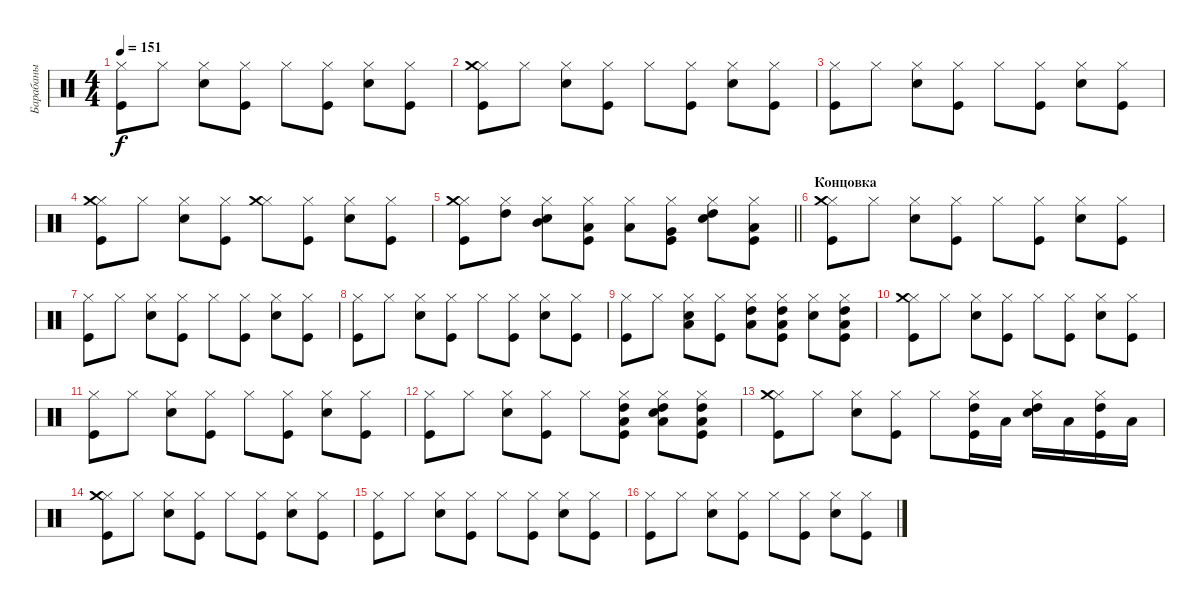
\track ("Барабаны" "Барабаны") {instrument percussion}
\staff {score}
\articulation defaults
\ts (4 4)
\tempo 151
\clef neutral
\ks c
("Kick (hit)" "Hi-Hat (closed)").8{dy f} "Hi-Hat (closed)".8 ("Snare (hit) 2" "Hi-Hat (closed)").8 ("Kick (hit)" "Hi-Hat (closed)").8 "Hi-Hat (closed)".8 ("Kick (hit)" "Hi-Hat (closed)").8 ("Snare (hit) 2" "Hi-Hat (closed)").8 ("Kick (hit)" "Hi-Hat (closed)").8 |
("Kick (hit)" "Hi-Hat (closed)" "Crash medium (hit)").8 "Hi-Hat (closed)".8 ("Snare (hit) 2" "Hi-Hat (closed)").8 ("Kick (hit)" "Hi-Hat (closed)").8 "Hi-Hat (closed)".8 ("Kick (hit)" "Hi-Hat (closed)").8 ("Snare (hit) 2" "Hi-Hat (closed)").8 ("Kick (hit)" "Hi-Hat (closed)").8 |
("Kick (hit)" "Hi-Hat (closed)").8 "Hi-Hat (closed)".8 ("Snare (hit) 2" "Hi-Hat (closed)").8 ("Kick (hit)" "Hi-Hat (closed)").8 "Hi-Hat (closed)".8 ("Kick (hit)" "Hi-Hat (closed)").8 ("Snare (hit) 2" "Hi-Hat (closed)").8 ("Kick (hit)" "Hi-Hat (closed)").8 |
("Kick (hit)" "Hi-Hat (closed)" "Crash medium (hit)").8 "Hi-Hat (closed)".8 ("Snare (hit) 2" "Hi-Hat (closed)").8 ("Kick (hit)" "Hi-Hat (closed)").8 ("Hi-Hat (closed)" "Crash medium (hit)").8 ("Kick (hit)" "Hi-Hat (closed)").8 ("Snare (hit) 2" "Hi-Hat (closed)").8 ("Kick (hit)" "Hi-Hat (closed)").8 |
\barLineRight lightlight
("Kick (hit)" "Hi-Hat (closed)" "Crash medium (hit)").8 ("Hi-Hat (closed)" "High Tom (hit)").8 ("Snare (hit) 2" "Hi-Hat (closed)" "Mid Tom (hit)").8 ("Kick (hit)" "Hi-Hat (closed)" "Low Tom (hit)").8 ("Hi-Hat (closed)" "Low Tom (hit)").8 ("Kick (hit)" "Hi-Hat (closed)" "Very Low Tom (hit)").8 ("Snare (hit) 2" "Hi-Hat (closed)" "High Tom (hit)").8 ("Kick (hit)" "Hi-Hat (closed)" "Low Tom (hit)").8 |
\section ("" "Концовка")
("Kick (hit)" "Hi-Hat (closed)" "Crash medium (hit)").8 "Hi-Hat (closed)".8 ("Snare (hit) 2" "Hi-Hat (closed)").8 ("Kick (hit)" "Hi-Hat (closed)").8 "Hi-Hat (closed)".8 ("Kick (hit)" "Hi-Hat (closed)").8 ("Snare (hit) 2" "Hi-Hat (closed)").8 ("Kick (hit)" "Hi-Hat (closed)").8 |
("Kick (hit)" "Hi-Hat (closed)").8 "Hi-Hat (closed)".8 ("Snare (hit) 2" "Hi-Hat (closed)").8 ("Kick (hit)" "Hi-Hat (closed)").8 "Hi-Hat (closed)".8 ("Kick (hit)" "Hi-Hat (closed)").8 ("Snare (hit) 2" "Hi-Hat (closed)").8 ("Kick (hit)" "Hi-Hat (closed)").8 |
("Kick (hit)" "Hi-Hat (closed)").8 "Hi-Hat (closed)".8 ("Snare (hit) 2" "Hi-Hat (closed)").8 ("Kick (hit)" "Hi-Hat (closed)").8 "Hi-Hat (closed)".8 ("Kick (hit)" "Hi-Hat (closed)").8 ("Snare (hit) 2" "Hi-Hat (closed)").8 ("Kick (hit)" "Hi-Hat (closed)").8 |
("Kick (hit)" "Hi-Hat (closed)").8 "Hi-Hat (closed)".8 ("Snare (hit) 2" "Hi-Hat (closed)" "Low Tom (hit)").8 ("Kick (hit)" "Hi-Hat (closed)").8 ("Hi-Hat (closed)" "Low Floor Tom (hit)" "High Tom (hit)").8 ("Kick (hit)" "Hi-Hat (closed)" "Low Floor Tom (hit)" "High Tom (hit)").8 ("Snare (hit) 2" "Hi-Hat (closed)").8 ("Kick (hit)" "Hi-Hat (closed)" "Low Floor Tom (hit)" "High Tom (hit)").8 |
("Kick (hit)" "Hi-Hat (closed)" "Crash medium (hit)").8 "Hi-Hat (closed)".8 ("Snare (hit) 2" "Hi-Hat (closed)").8 ("Kick (hit)" "Hi-Hat (closed)").8 "Hi-Hat (closed)".8 ("Kick (hit)" "Hi-Hat (closed)").8 ("Snare (hit) 2" "Hi-Hat (closed)").8 ("Kick (hit)" "Hi-Hat (closed)").8 |
("Kick (hit)" "Hi-Hat (closed)").8 "Hi-Hat (closed)".8 ("Snare (hit) 2" "Hi-Hat (closed)").8 ("Kick (hit)" "Hi-Hat (closed)").8 "Hi-Hat (closed)".8 ("Kick (hit)" "Hi-Hat (closed)").8 ("Snare (hit) 2" "Hi-Hat (closed)").8 ("Kick (hit)" "Hi-Hat (closed)").8 |
("Kick (hit)" "Hi-Hat (closed)").8 "Hi-Hat (closed)".8 ("Snare (hit) 2" "Hi-Hat (closed)").8 ("Kick (hit)" "Hi-Hat (closed)").8 "Hi-Hat (closed)".8 ("Kick (hit)" "Hi-Hat (closed)" "Low Floor Tom (hit)" "High Tom (hit)").8 ("Snare (hit) 2" "Hi-Hat (closed)" "Low Floor Tom (hit)" "High Tom (hit)").8 ("Kick (hit)" "Hi-Hat (closed)" "Low Floor Tom (hit)" "High Tom (hit)").8 |
("Kick (hit)" "Hi-Hat (closed)" "Crash medium (hit)").8 "Hi-Hat (closed)".8 ("Snare (hit) 2" "Hi-Hat (closed)").8 ("Kick (hit)" "Hi-Hat (closed)").8 "Hi-Hat (closed)".8 ("Kick (hit)" "Hi-Hat (closed)" "High Tom (hit)").16 "Low Floor Tom (hit)".16 ("Snare (hit) 2" "Hi-Hat (closed)" "High Tom (hit)").16 "Low Floor Tom (hit)".16 ("Kick (hit)" "Hi-Hat (closed)" "High Tom (hit)").16 "Low Floor Tom (hit)".16 |
("Kick (hit)" "Hi-Hat (closed)" "Crash medium (hit)").8 "Hi-Hat (closed)".8 ("Snare (hit) 2" "Hi-Hat (closed)").8 ("Kick (hit)" "Hi-Hat (closed)").8 "Hi-Hat (closed)".8 ("Kick (hit)" "Hi-Hat (closed)").8 ("Snare (hit) 2" "Hi-Hat (closed)").8 ("Kick (hit)" "Hi-Hat (closed)").8 |
("Kick (hit)" "Hi-Hat (closed)").8 "Hi-Hat (closed)".8 ("Snare (hit) 2" "Hi-Hat (closed)").8 ("Kick (hit)" "Hi-Hat (closed)").8 "Hi-Hat (closed)".8 ("Kick (hit)" "Hi-Hat (closed)").8 ("Snare (hit) 2" "Hi-Hat (closed)").8 ("Kick (hit)" "Hi-Hat (closed)").8 |
("Kick (hit)" "Hi-Hat (closed)").8 "Hi-Hat (closed)".8 ("Snare (hit) 2" "Hi-Hat (closed)").8 ("Kick (hit)" "Hi-Hat (closed)").8 "Hi-Hat (closed)".8 ("Kick (hit)" "Hi-Hat (closed)").8 ("Snare (hit) 2" "Hi-Hat (closed)").8 ("Kick (hit)" "Hi-Hat (closed)").8
